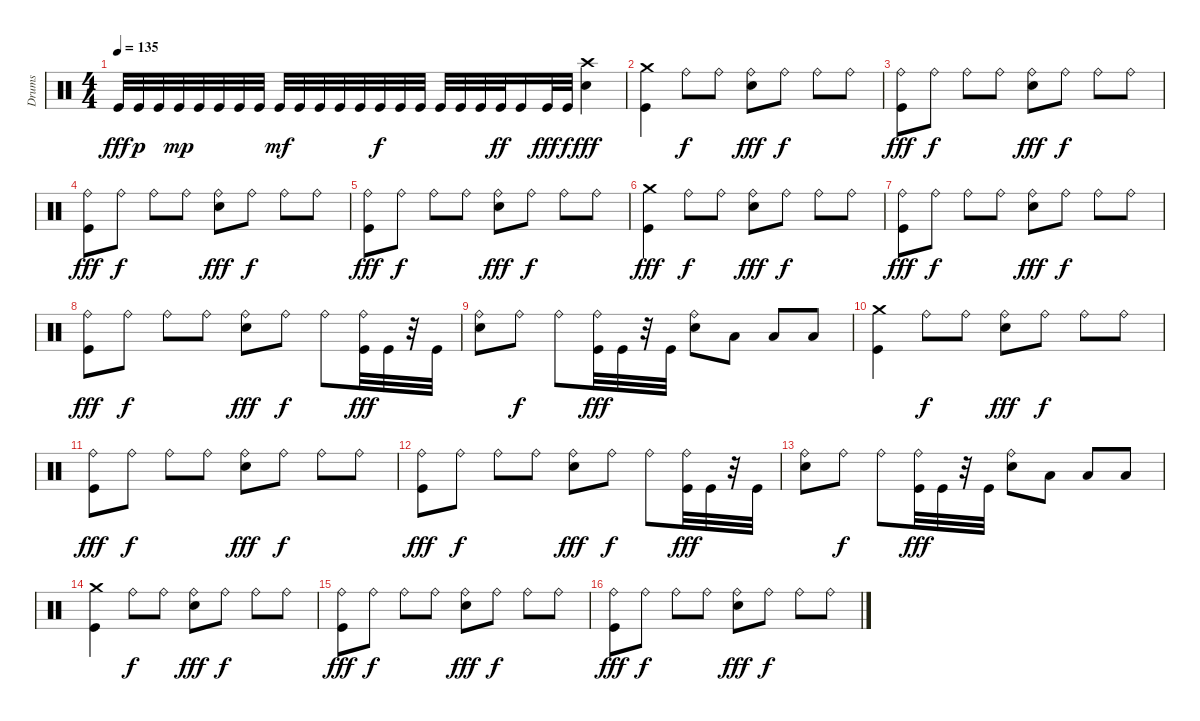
\track ("Drums" "Drums") {instrument percussion}
\staff {score}
\articulation defaults
\ts (4 4)
\tempo 135
\clef neutral
\ks c "Kick (hit)".32{dy fff} "Kick (hit)".32{dy p} "Kick (hit)".32 "Kick (hit)".32{dy mp} "Kick (hit)".32 "Kick (hit)".32 "Kick (hit)".32 "Kick (hit)".32 "Kick (hit)".32{dy mf} "Kick (hit)".32 "Kick (hit)".32 "Kick (hit)".32 "Kick (hit)".32 "Kick (hit)".32{dy f} "Kick (hit)".32 "Kick (hit)".32 "Kick (hit)".32 "Kick (hit)".32 "Kick (hit)".32 "Kick (hit)".32{dy ff} "Kick (hit)".16 "Kick (hit)".32{dy fff} "Kick (hit)".32{dy f}
("Crash high (hit)" "Electric Snare (hit)").4{dy fff} |
("Kick (hit)" "Crash medium (hit)").4 "Ride (bell)".8{dy f} "Ride (bell)".8 ("Electric Snare (hit)" "Ride (bell)").8{dy fff} "Ride (bell)".8{dy f} "Ride (bell)".8 "Ride (bell)".8 |
("Kick (hit)" "Ride (bell)").8{dy fff} "Ride (bell)".8{dy f} "Ride (bell)".8 "Ride (bell)".8 ("Electric Snare (hit)" "Ride (bell)").8{dy fff} "Ride (bell)".8{dy f} "Ride (bell)".8 "Ride (bell)".8 |
("Kick (hit)" "Ride (bell)").8{dy fff} "Ride (bell)".8{dy f} "Ride (bell)".8 "Ride (bell)".8 ("Electric Snare (hit)" "Ride (bell)").8{dy fff} "Ride (bell)".8{dy f} "Ride (bell)".8 "Ride (bell)".8 |
("Kick (hit)" "Ride (bell)").8{dy fff} "Ride (bell)".8{dy f} "Ride (bell)".8 "Ride (bell)".8 ("Electric Snare (hit)" "Ride (bell)").8{dy fff} "Ride (bell)".8{dy f} "Ride (bell)".8 "Ride (bell)".8 |
("Kick (hit)" "Crash medium (hit)").4{dy fff} "Ride (bell)".8{dy f} "Ride (bell)".8 ("Electric Snare (hit)" "Ride (bell)").8{dy fff} "Ride (bell)".8{dy f} "Ride (bell)".8 "Ride (bell)".8 |
("Kick (hit)" "Ride (bell)").8{dy fff} "Ride (bell)".8{dy f} "Ride (bell)".8 "Ride (bell)".8 ("Electric Snare (hit)" "Ride (bell)").8{dy fff} "Ride (bell)".8{dy f} "Ride (bell)".8 "Ride (bell)".8 |
("Kick (hit)" "Ride (bell)").8{dy fff} "Ride (bell)".8{dy f} "Ride (bell)".8 "Ride (bell)".8 ("Electric Snare (hit)" "Ride (bell)").8{dy fff} "Ride (bell)".8{dy f} "Ride (bell)".8 ("Kick (hit)" "Ride (bell)").32{dy fff} "Kick (hit)".32 r.32 "Kick (hit)".32 |
("Ride (bell)" "Electric Snare (hit)").8 "Ride (bell)".8{dy f} "Ride (bell)".8 ("Kick (hit)" "Ride (bell)").32{dy fff} "Kick (hit)".32 r.32 "Kick (hit)".32 ("Electric Snare (hit)" "Ride (bell)").8 "Low Floor Tom (hit)".8 "Low Floor Tom (hit)".8 "Low Floor Tom (hit)".8 |
("Kick (hit)" "Crash medium (hit)").4 "Ride (bell)".8{dy f} "Ride (bell)".8 ("Electric Snare (hit)" "Ride (bell)").8{dy fff} "Ride (bell)".8{dy f} "Ride (bell)".8 "Ride (bell)".8 |
("Kick (hit)" "Ride (bell)").8{dy fff} "Ride (bell)".8{dy f} "Ride (bell)".8 "Ride (bell)".8 ("Electric Snare (hit)" "Ride (bell)").8{dy fff} "Ride (bell)".8{dy f} "Ride (bell)".8 "Ride (bell)".8 |
("Kick (hit)" "Ride (bell)").8{dy fff} "Ride (bell)".8{dy f} "Ride (bell)".8 "Ride (bell)".8 ("Electric Snare (hit)" "Ride (bell)").8{dy fff} "Ride (bell)".8{dy f} "Ride (bell)".8 ("Kick (hit)" "Ride (bell)").32{dy fff} "Kick (hit)".32 r.32 "Kick (hit)".32 |
("Ride (bell)" "Electric Snare (hit)").8 "Ride (bell)".8{dy f} "Ride (bell)".8 ("Kick (hit)" "Ride (bell)").32{dy fff} "Kick (hit)".32 r.32 "Kick (hit)".32 ("Electric Snare (hit)" "Ride (bell)").8 "Low Floor Tom (hit)".8 "Low Floor Tom (hit)".8 "Low Floor Tom (hit)".8 |
("Kick (hit)" "Crash medium (hit)").4 "Ride (bell)".8{dy f} "Ride (bell)".8 ("Electric Snare (hit)" "Ride (bell)").8{dy fff} "Ride (bell)".8{dy f} "Ride (bell)".8 "Ride (bell)".8 |
("Kick (hit)" "Ride (bell)").8{dy fff} "Ride (bell)".8{dy f} "Ride (bell)".8 "Ride (bell)".8 ("Electric Snare (hit)" "Ride (bell)").8{dy fff} "Ride (bell)".8{dy f} "Ride (bell)".8 "Ride (bell)".8 |
("Kick (hit)" "Ride (bell)").8{dy fff} "Ride (bell)".8{dy f} "Ride (bell)".8 "Ride (bell)".8 ("Electric Snare (hit)" "Ride (bell)").8{dy fff} "Ride (bell)".8{dy f} "Ride (bell)".8 "Ride (bell)".8
